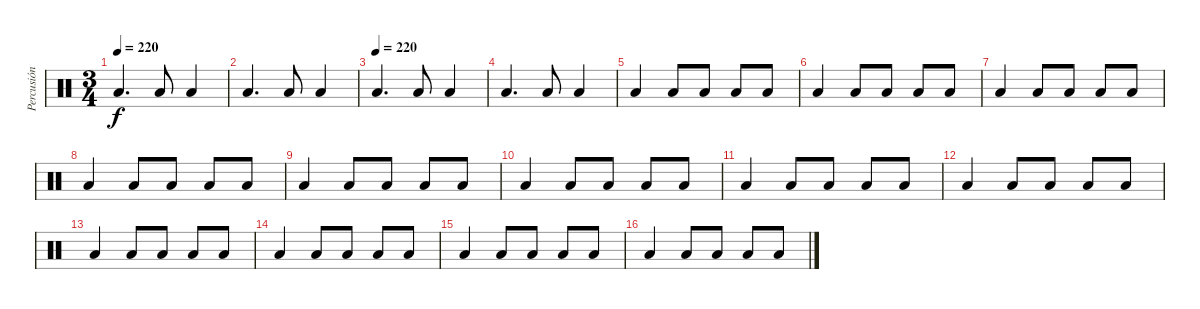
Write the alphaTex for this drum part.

\track ("Percusión" "Percusión") {instrument percussion}
\staff {score}
\articulation defaults
\ts (3 4)
\tempo 220
\clef neutral
\ks c "Low Floor Tom (hit)".4{d dy f} "Low Floor Tom (hit)".8 "Low Floor Tom (hit)".4
|
"Low Floor Tom (hit)".4{d} "Low Floor Tom (hit)".8 "Low Floor Tom (hit)".4 |
\tempo (220)
"Low Floor Tom (hit)".4{d} "Low Floor Tom (hit)".8 "Low Floor Tom (hit)".4 |
"Low Floor Tom (hit)".4{d} "Low Floor Tom (hit)".8 "Low Floor Tom (hit)".4 |
"Low Floor Tom (hit)".4 "Low Floor Tom (hit)".8 "Low Floor Tom (hit)".8 "Low Floor Tom (hit)".8 "Low Floor Tom (hit)".8 |
"Low Floor Tom (hit)".4 "Low Floor Tom (hit)".8 "Low Floor Tom (hit)".8 "Low Floor Tom (hit)".8 "Low Floor Tom (hit)".8 |
"Low Floor Tom (hit)".4 "Low Floor Tom (hit)".8 "Low Floor Tom (hit)".8 "Low Floor Tom (hit)".8 "Low Floor Tom (hit)".8 |
"Low Floor Tom (hit)".4 "Low Floor Tom (hit)".8 "Low Floor Tom (hit)".8 "Low Floor Tom (hit)".8 "Low Floor Tom (hit)".8 |
"Low Floor Tom (hit)".4 "Low Floor Tom (hit)".8 "Low Floor Tom (hit)".8 "Low Floor Tom (hit)".8 "Low Floor Tom (hit)".8 |
"Low Floor Tom (hit)".4 "Low Floor Tom (hit)".8 "Low Floor Tom (hit)".8 "Low Floor Tom (hit)".8 "Low Floor Tom (hit)".8 |
"Low Floor Tom (hit)".4 "Low Floor Tom (hit)".8 "Low Floor Tom (hit)".8 "Low Floor Tom (hit)".8 "Low Floor Tom (hit)".8 |
"Low Floor Tom (hit)".4 "Low Floor Tom (hit)".8 "Low Floor Tom (hit)".8 "Low Floor Tom (hit)".8 "Low Floor Tom (hit)".8 |
"Low Floor Tom (hit)".4 "Low Floor Tom (hit)".8 "Low Floor Tom (hit)".8 "Low Floor Tom (hit)".8 "Low Floor Tom (hit)".8 |
"Low Floor Tom (hit)".4 "Low Floor Tom (hit)".8 "Low Floor Tom (hit)".8 "Low Floor Tom (hit)".8 "Low Floor Tom (hit)".8 |
"Low Floor Tom (hit)".4 "Low Floor Tom (hit)".8 "Low Floor Tom (hit)".8 "Low Floor Tom (hit)".8 "Low Floor Tom (hit)".8 |
"Low Floor Tom (hit)".4 "Low Floor Tom (hit)".8 "Low Floor Tom (hit)".8 "Low Floor Tom (hit)".8 "Low Floor Tom (hit)".8
